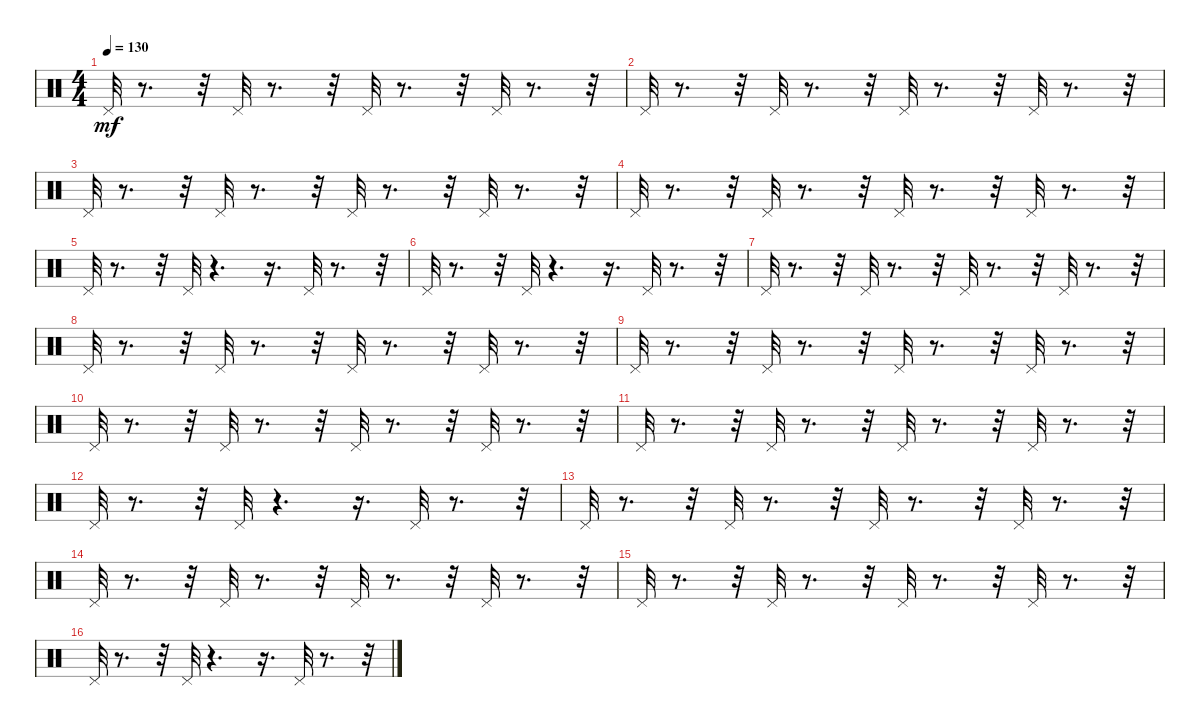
\track "" {instrument percussion}
\staff {score}
\articulation defaults
\ts (4 4)
\tempo 130
\clef neutral
\ks c "Pedal Hi-Hat (hit)".32{dy mf}
r.8{d} r.32 "Pedal Hi-Hat (hit)".32 r.8{d} r.32 "Pedal Hi-Hat (hit)".32 r.8{d} r.32 "Pedal Hi-Hat (hit)".32 r.8{d} r.32 |
"Pedal Hi-Hat (hit)".32 r.8{d} r.32 "Pedal Hi-Hat (hit)".32 r.8{d} r.32 "Pedal Hi-Hat (hit)".32 r.8{d} r.32 "Pedal Hi-Hat (hit)".32 r.8{d} r.32 |
"Pedal Hi-Hat (hit)".32 r.8{d} r.32 "Pedal Hi-Hat (hit)".32 r.8{d} r.32 "Pedal Hi-Hat (hit)".32 r.8{d} r.32 "Pedal Hi-Hat (hit)".32 r.8{d} r.32 |
"Pedal Hi-Hat (hit)".32 r.8{d} r.32 "Pedal Hi-Hat (hit)".32 r.8{d} r.32 "Pedal Hi-Hat (hit)".32 r.8{d} r.32 "Pedal Hi-Hat (hit)".32 r.8{d} r.32 |
"Pedal Hi-Hat (hit)".32 r.8{d} r.32 "Pedal Hi-Hat (hit)".32 r.4{d} r.16{d} "Pedal Hi-Hat (hit)".32 r.8{d} r.32 |
"Pedal Hi-Hat (hit)".32 r.8{d} r.32 "Pedal Hi-Hat (hit)".32 r.4{d} r.16{d} "Pedal Hi-Hat (hit)".32 r.8{d} r.32 |
"Pedal Hi-Hat (hit)".32 r.8{d} r.32 "Pedal Hi-Hat (hit)".32 r.8{d} r.32 "Pedal Hi-Hat (hit)".32 r.8{d} r.32 "Pedal Hi-Hat (hit)".32 r.8{d} r.32 |
"Pedal Hi-Hat (hit)".32 r.8{d} r.32 "Pedal Hi-Hat (hit)".32 r.8{d} r.32 "Pedal Hi-Hat (hit)".32 r.8{d} r.32 "Pedal Hi-Hat (hit)".32 r.8{d} r.32 |
"Pedal Hi-Hat (hit)".32 r.8{d} r.32 "Pedal Hi-Hat (hit)".32 r.8{d} r.32 "Pedal Hi-Hat (hit)".32 r.8{d} r.32 "Pedal Hi-Hat (hit)".32 r.8{d} r.32 |
"Pedal Hi-Hat (hit)".32 r.8{d} r.32 "Pedal Hi-Hat (hit)".32 r.8{d} r.32 "Pedal Hi-Hat (hit)".32 r.8{d} r.32 "Pedal Hi-Hat (hit)".32 r.8{d} r.32 |
"Pedal Hi-Hat (hit)".32 r.8{d} r.32 "Pedal Hi-Hat (hit)".32 r.8{d} r.32 "Pedal Hi-Hat (hit)".32 r.8{d} r.32 "Pedal Hi-Hat (hit)".32 r.8{d} r.32 |
"Pedal Hi-Hat (hit)".32 r.8{d} r.32 "Pedal Hi-Hat (hit)".32 r.4{d} r.16{d} "Pedal Hi-Hat (hit)".32 r.8{d} r.32 |
"Pedal Hi-Hat (hit)".32 r.8{d} r.32 "Pedal Hi-Hat (hit)".32 r.8{d} r.32 "Pedal Hi-Hat (hit)".32 r.8{d} r.32 "Pedal Hi-Hat (hit)".32 r.8{d} r.32 |
"Pedal Hi-Hat (hit)".32 r.8{d} r.32 "Pedal Hi-Hat (hit)".32 r.8{d} r.32 "Pedal Hi-Hat (hit)".32 r.8{d} r.32 "Pedal Hi-Hat (hit)".32 r.8{d} r.32 |
"Pedal Hi-Hat (hit)".32 r.8{d} r.32 "Pedal Hi-Hat (hit)".32 r.8{d} r.32 "Pedal Hi-Hat (hit)".32 r.8{d} r.32 "Pedal Hi-Hat (hit)".32 r.8{d} r.32 |
"Pedal Hi-Hat (hit)".32 r.8{d} r.32 "Pedal Hi-Hat (hit)".32 r.4{d} r.16{d} "Pedal Hi-Hat (hit)".32 r.8{d} r.32
